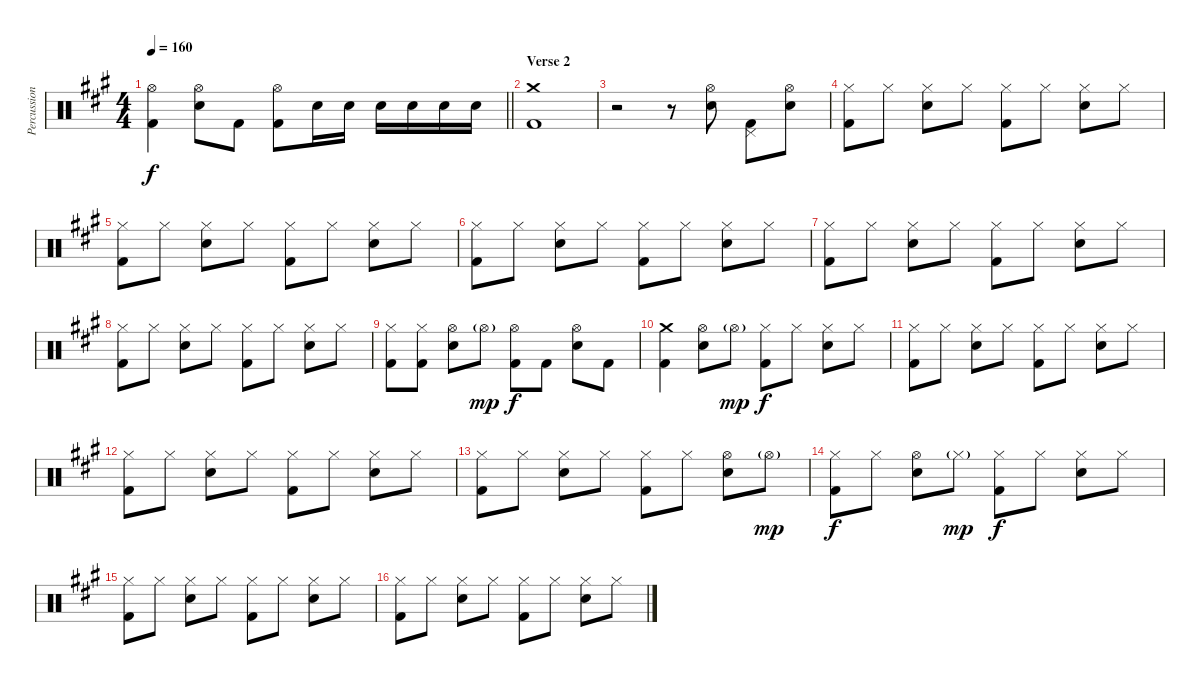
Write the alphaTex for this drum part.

\track ("Percussion" "Percussion") {instrument percussion}
\staff {score}
\articulation defaults
\ts (4 4)
\tempo 160
\clef neutral
\barLineRight lightlight
\ks a
("Hi-Hat (open)" "Kick (hit) 2").4{dy f} ("Hi-Hat (open)" "Electric Snare (hit)").8 "Kick (hit) 2".8 ("Hi-Hat (open)" "Kick (hit) 2").8 "Electric Snare (hit)".16 "Electric Snare (hit)".16 "Electric Snare (hit)".16 "Electric Snare (hit)".16 "Electric Snare (hit)".16 "Electric Snare (hit)".16 |
\section ("" "Verse 2")
("Crash medium (hit)" "Kick (hit) 2").1 |
r.2 r.8 ("Hi-Hat (open)" "Electric Snare (hit)").8 ("Pedal Hi-Hat (hit)" "Kick (hit) 2").8 ("Hi-Hat (open)" "Electric Snare (hit)").8 |
("Hi-Hat (closed)" "Kick (hit) 2").8 "Hi-Hat (closed)".8 ("Hi-Hat (closed)" "Electric Snare (hit)").8 "Hi-Hat (closed)".8 ("Hi-Hat (closed)" "Kick (hit) 2").8 "Hi-Hat (closed)".8 ("Hi-Hat (closed)" "Electric Snare (hit)").8 "Hi-Hat (closed)".8 |
("Hi-Hat (closed)" "Kick (hit) 2").8 "Hi-Hat (closed)".8 ("Hi-Hat (closed)" "Electric Snare (hit)").8 "Hi-Hat (closed)".8 ("Hi-Hat (closed)" "Kick (hit) 2").8 "Hi-Hat (closed)".8 ("Hi-Hat (closed)" "Electric Snare (hit)").8 "Hi-Hat (closed)".8 |
("Hi-Hat (closed)" "Kick (hit) 2").8 "Hi-Hat (closed)".8 ("Hi-Hat (closed)" "Electric Snare (hit)").8 "Hi-Hat (closed)".8 ("Hi-Hat (closed)" "Kick (hit) 2").8 "Hi-Hat (closed)".8 ("Hi-Hat (closed)" "Electric Snare (hit)").8 "Hi-Hat (closed)".8 |
("Hi-Hat (closed)" "Kick (hit) 2").8 "Hi-Hat (closed)".8 ("Hi-Hat (closed)" "Electric Snare (hit)").8 "Hi-Hat (closed)".8 ("Hi-Hat (closed)" "Kick (hit) 2").8 "Hi-Hat (closed)".8 ("Hi-Hat (closed)" "Electric Snare (hit)").8 "Hi-Hat (closed)".8 |
("Hi-Hat (closed)" "Kick (hit) 2").8 "Hi-Hat (closed)".8 ("Hi-Hat (closed)" "Electric Snare (hit)").8 "Hi-Hat (closed)".8 ("Hi-Hat (closed)" "Kick (hit) 2").8 "Hi-Hat (closed)".8 ("Hi-Hat (closed)" "Electric Snare (hit)").8 "Hi-Hat (closed)".8 |
("Hi-Hat (closed)" "Kick (hit) 2").8 ("Hi-Hat (closed)" "Kick (hit) 2").8 ("Hi-Hat (open)" "Electric Snare (hit)").8 "Hi-Hat (open)"{g}.8{dy mp} ("Hi-Hat (open)" "Kick (hit) 2").8{dy f} "Kick (hit) 2".8 ("Hi-Hat (open)" "Electric Snare (hit)").8 "Kick (hit) 2".8 |
("Crash medium (hit)" "Kick (hit) 2").4 ("Hi-Hat (open)" "Electric Snare (hit)").8 "Hi-Hat (open)"{g}.8{dy mp} ("Hi-Hat (closed)" "Kick (hit) 2").8{dy f} "Hi-Hat (closed)".8 ("Hi-Hat (closed)" "Electric Snare (hit)").8 "Hi-Hat (closed)".8 |
("Hi-Hat (closed)" "Kick (hit) 2").8 "Hi-Hat (closed)".8 ("Hi-Hat (closed)" "Electric Snare (hit)").8 "Hi-Hat (closed)".8 ("Hi-Hat (closed)" "Kick (hit) 2").8 "Hi-Hat (closed)".8 ("Hi-Hat (closed)" "Electric Snare (hit)").8 "Hi-Hat (closed)".8 |
("Hi-Hat (closed)" "Kick (hit) 2").8 "Hi-Hat (closed)".8 ("Hi-Hat (closed)" "Electric Snare (hit)").8 "Hi-Hat (closed)".8 ("Hi-Hat (closed)" "Kick (hit) 2").8 "Hi-Hat (closed)".8 ("Hi-Hat (closed)" "Electric Snare (hit)").8 "Hi-Hat (closed)".8 |
("Hi-Hat (closed)" "Kick (hit) 2").8 "Hi-Hat (closed)".8 ("Hi-Hat (closed)" "Electric Snare (hit)").8 "Hi-Hat (closed)".8 ("Hi-Hat (closed)" "Kick (hit) 2").8 "Hi-Hat (closed)".8 ("Hi-Hat (open)" "Electric Snare (hit)").8 "Hi-Hat (open)"{g}.8{dy mp} |
("Hi-Hat (closed)" "Kick (hit) 2").8{dy f} "Hi-Hat (closed)".8 ("Hi-Hat (open)" "Electric Snare (hit)").8 "Hi-Hat (closed)"{g}.8{dy mp} ("Hi-Hat (closed)" "Kick (hit) 2").8{dy f} "Hi-Hat (closed)".8 ("Hi-Hat (closed)" "Electric Snare (hit)").8 "Hi-Hat (closed)".8 |
("Hi-Hat (closed)" "Kick (hit) 2").8 "Hi-Hat (closed)".8 ("Hi-Hat (closed)" "Electric Snare (hit)").8 "Hi-Hat (closed)".8 ("Hi-Hat (closed)" "Kick (hit) 2").8 "Hi-Hat (closed)".8 ("Hi-Hat (closed)" "Electric Snare (hit)").8 "Hi-Hat (closed)".8 |
("Hi-Hat (closed)" "Kick (hit) 2").8 "Hi-Hat (closed)".8 ("Hi-Hat (closed)" "Electric Snare (hit)").8 "Hi-Hat (closed)".8 ("Hi-Hat (closed)" "Kick (hit) 2").8 "Hi-Hat (closed)".8 ("Hi-Hat (closed)" "Electric Snare (hit)").8 "Hi-Hat (closed)".8
